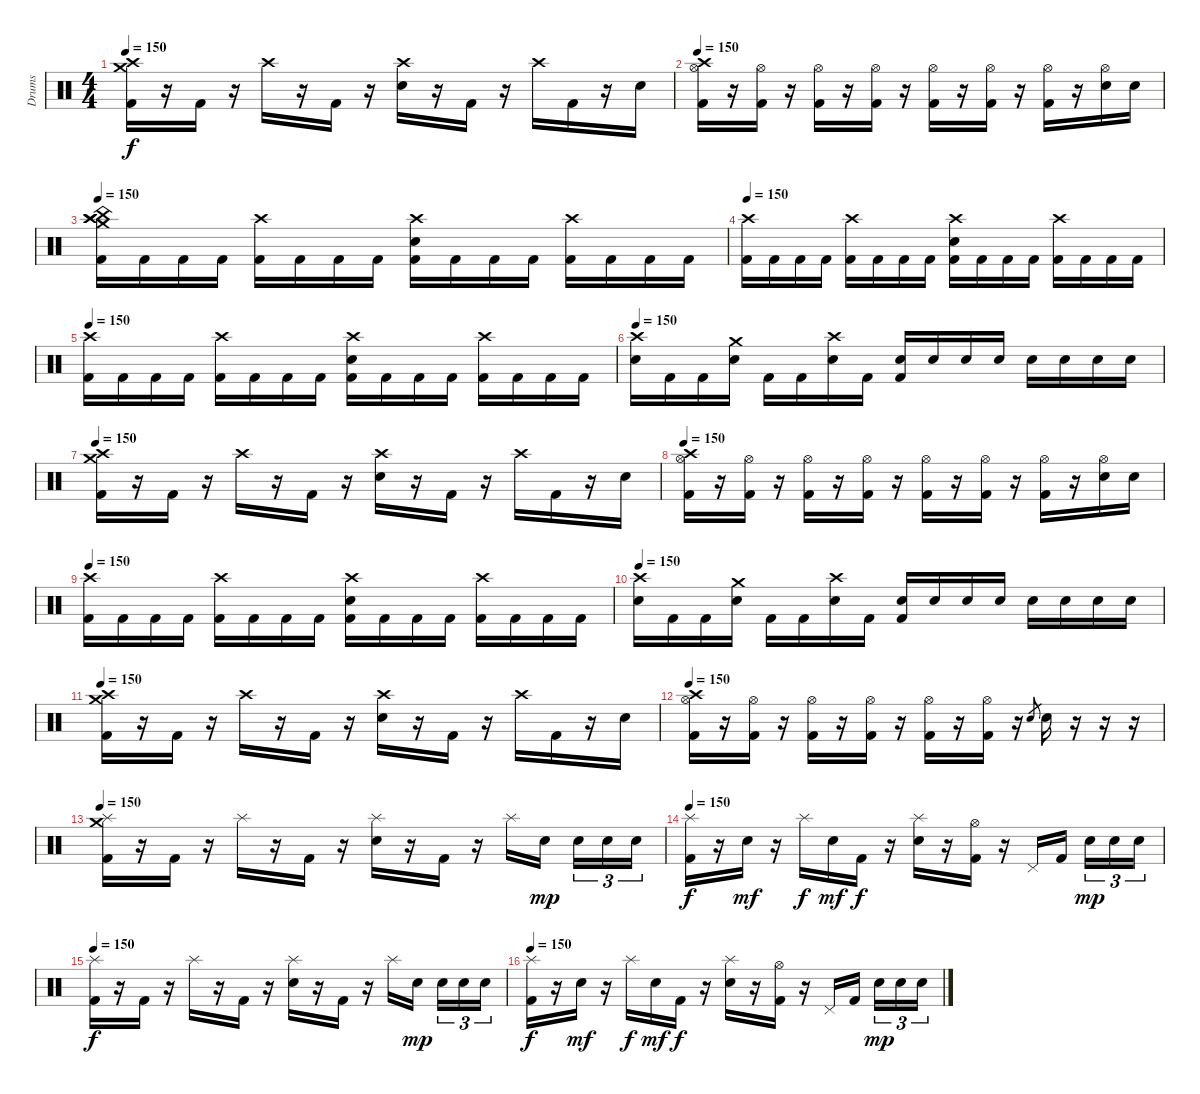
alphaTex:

\track ("Drums" "Drums") {instrument percussion}
\staff {score}
\articulation defaults
\ts (4 4)
\tempo 150
\clef neutral
\ks c
("Crash high (hit)" "Crash medium (hit)" "Kick (hit) 2").16{dy f} r.16 "Kick (hit) 2".16 r.16 "Crash high (hit)".16 r.16 "Kick (hit) 2".16 r.16 ("Crash high (hit)" "Electric Snare (hit)").16 r.16 "Kick (hit) 2".16 r.16 "Crash high (hit)".16 "Kick (hit) 2".16 r.16 "Electric Snare (hit)".16 |
\tempo 150
("Crash high (hit)" "Hi-Hat (open)" "Kick (hit) 2").16 r.16 ("Hi-Hat (open)" "Kick (hit) 2").16 r.16 ("Hi-Hat (open)" "Kick (hit) 2").16 r.16 ("Hi-Hat (open)" "Kick (hit) 2").16 r.16 ("Hi-Hat (open)" "Kick (hit) 2").16 r.16 ("Hi-Hat (open)" "Kick (hit) 2").16 r.16 ("Hi-Hat (open)" "Kick (hit) 2").16 r.16 ("Hi-Hat (open)" "Electric Snare (hit)").16 "Electric Snare (hit)".16 |
\tempo 150
("Crash high (hit)" "Crash medium (hit)" "Crash high (hit)" "China (hit)" "Kick (hit) 2").16 "Kick (hit) 2".16 "Kick (hit) 2".16 "Kick (hit) 2".16 ("Crash high (hit)" "Kick (hit) 2").16 "Kick (hit) 2".16 "Kick (hit) 2".16 "Kick (hit) 2".16 ("Crash high (hit)" "Electric Snare (hit)" "Kick (hit) 2").16 "Kick (hit) 2".16 "Kick (hit) 2".16 "Kick (hit) 2".16 ("Crash high (hit)" "Kick (hit) 2").16 "Kick (hit) 2".16 "Kick (hit) 2".16 "Kick (hit) 2".16 |
\tempo 150
("Crash high (hit)" "Kick (hit) 2").16 "Kick (hit) 2".16 "Kick (hit) 2".16 "Kick (hit) 2".16 ("Crash high (hit)" "Kick (hit) 2").16 "Kick (hit) 2".16 "Kick (hit) 2".16 "Kick (hit) 2".16 ("Crash high (hit)" "Electric Snare (hit)" "Kick (hit) 2").16 "Kick (hit) 2".16 "Kick (hit) 2".16 "Kick (hit) 2".16 ("Crash high (hit)" "Kick (hit) 2").16 "Kick (hit) 2".16 "Kick (hit) 2".16 "Kick (hit) 2".16 |
\tempo 150
("Crash high (hit)" "Kick (hit) 2").16 "Kick (hit) 2".16 "Kick (hit) 2".16 "Kick (hit) 2".16 ("Crash high (hit)" "Kick (hit) 2").16 "Kick (hit) 2".16 "Kick (hit) 2".16 "Kick (hit) 2".16 ("Crash high (hit)" "Electric Snare (hit)" "Kick (hit) 2").16 "Kick (hit) 2".16 "Kick (hit) 2".16 "Kick (hit) 2".16 ("Crash high (hit)" "Kick (hit) 2").16 "Kick (hit) 2".16 "Kick (hit) 2".16 "Kick (hit) 2".16 |
\tempo 150
("Crash high (hit)" "Electric Snare (hit)").16 "Kick (hit) 2".16 "Kick (hit) 2".16 ("Crash medium (hit)" "Electric Snare (hit)").16 "Kick (hit) 2".16 "Kick (hit) 2".16 ("Crash high (hit)" "Electric Snare (hit)").16 "Kick (hit) 2".16 ("Electric Snare (hit)" "Kick (hit) 2").16 "Electric Snare (hit)".16 "Electric Snare (hit)".16 "Electric Snare (hit)".16 "Electric Snare (hit)".16 "Electric Snare (hit)".16 "Electric Snare (hit)".16 "Electric Snare (hit)".16 |
\tempo 150
("Crash high (hit)" "Crash medium (hit)" "Kick (hit) 2").16 r.16 "Kick (hit) 2".16 r.16 "Crash high (hit)".16 r.16 "Kick (hit) 2".16 r.16 ("Crash high (hit)" "Electric Snare (hit)").16 r.16 "Kick (hit) 2".16 r.16 "Crash high (hit)".16 "Kick (hit) 2".16 r.16 "Electric Snare (hit)".16 |
\tempo 150
("Crash high (hit)" "Hi-Hat (open)" "Kick (hit) 2").16 r.16 ("Hi-Hat (open)" "Kick (hit) 2").16 r.16 ("Hi-Hat (open)" "Kick (hit) 2").16 r.16 ("Hi-Hat (open)" "Kick (hit) 2").16 r.16 ("Hi-Hat (open)" "Kick (hit) 2").16 r.16 ("Hi-Hat (open)" "Kick (hit) 2").16 r.16 ("Hi-Hat (open)" "Kick (hit) 2").16 r.16 ("Hi-Hat (open)" "Electric Snare (hit)").16 "Electric Snare (hit)".16 |
\tempo 150
("Crash high (hit)" "Kick (hit) 2").16 "Kick (hit) 2".16 "Kick (hit) 2".16 "Kick (hit) 2".16 ("Crash high (hit)" "Kick (hit) 2").16 "Kick (hit) 2".16 "Kick (hit) 2".16 "Kick (hit) 2".16 ("Crash high (hit)" "Electric Snare (hit)" "Kick (hit) 2").16 "Kick (hit) 2".16 "Kick (hit) 2".16 "Kick (hit) 2".16 ("Crash high (hit)" "Kick (hit) 2").16 "Kick (hit) 2".16 "Kick (hit) 2".16 "Kick (hit) 2".16 |
\tempo 150
("Crash high (hit)" "Electric Snare (hit)").16 "Kick (hit) 2".16 "Kick (hit) 2".16 ("Crash medium (hit)" "Electric Snare (hit)").16 "Kick (hit) 2".16 "Kick (hit) 2".16 ("Crash high (hit)" "Electric Snare (hit)").16 "Kick (hit) 2".16 ("Electric Snare (hit)" "Kick (hit) 2").16 "Electric Snare (hit)".16 "Electric Snare (hit)".16 "Electric Snare (hit)".16 "Electric Snare (hit)".16 "Electric Snare (hit)".16 "Electric Snare (hit)".16 "Electric Snare (hit)".16 |
\tempo 150
("Crash high (hit)" "Crash medium (hit)" "Kick (hit) 2").16 r.16 "Kick (hit) 2".16 r.16 "Crash high (hit)".16 r.16 "Kick (hit) 2".16 r.16 ("Crash high (hit)" "Electric Snare (hit)").16 r.16 "Kick (hit) 2".16 r.16 "Crash high (hit)".16 "Kick (hit) 2".16 r.16 "Electric Snare (hit)".16 |
\tempo 150
("Crash high (hit)" "Hi-Hat (open)" "Kick (hit) 2").16 r.16 ("Hi-Hat (open)" "Kick (hit) 2").16 r.16 ("Hi-Hat (open)" "Kick (hit) 2").16 r.16 ("Hi-Hat (open)" "Kick (hit) 2").16 r.16 ("Hi-Hat (open)" "Kick (hit) 2").16 r.16 ("Hi-Hat (open)" "Kick (hit) 2").16 r.16 "Electric Snare (hit)".8{gr} "Electric Snare (hit)".16 r.16 r.16 r.16 |
\tempo 150
("Splash (hit)" "Crash medium (hit)" "Kick (hit) 2").16 r.16 "Kick (hit) 2".16 r.16 "Splash (hit)".16 r.16 "Kick (hit) 2".16 r.16 ("Splash (hit)" "Electric Snare (hit)").16 r.16 "Kick (hit) 2".16 r.16 "Splash (hit)".16 "Electric Snare (hit)".16{dy mp} "Electric Snare (hit)".16{tu (3 2)} "Electric Snare (hit)".16{tu (3 2)} "Electric Snare (hit)".16{tu (3 2)} |
\tempo 150
("Splash (hit)" "Kick (hit) 2").16{dy f} r.16 "Electric Snare (hit)".16{dy mf} r.16 "Splash (hit)".16{dy f} "Electric Snare (hit)".16{dy mf} "Kick (hit) 2".16{dy f} r.16 ("Splash (hit)" "Electric Snare (hit)").16 r.16 ("Hi-Hat (open)" "Kick (hit) 2").16 r.16 "Pedal Hi-Hat (hit)".16 "Kick (hit) 2".16 "Electric Snare (hit)".16{tu (3 2) dy mp} "Electric Snare (hit)".16{tu (3 2)} "Electric Snare (hit)".16{tu (3 2)} |
\tempo 150
("Splash (hit)" "Kick (hit) 2").16{dy f} r.16 "Kick (hit) 2".16 r.16 "Splash (hit)".16 r.16 "Kick (hit) 2".16 r.16 ("Splash (hit)" "Electric Snare (hit)").16 r.16 "Kick (hit) 2".16 r.16 "Splash (hit)".16 "Electric Snare (hit)".16{dy mp} "Electric Snare (hit)".16{tu (3 2)} "Electric Snare (hit)".16{tu (3 2)} "Electric Snare (hit)".16{tu (3 2)} |
\tempo 150
("Splash (hit)" "Kick (hit) 2").16{dy f} r.16 "Electric Snare (hit)".16{dy mf} r.16 "Splash (hit)".16{dy f} "Electric Snare (hit)".16{dy mf} "Kick (hit) 2".16{dy f} r.16 ("Splash (hit)" "Electric Snare (hit)").16 r.16 ("Hi-Hat (open)" "Kick (hit) 2").16 r.16 "Pedal Hi-Hat (hit)".16 "Kick (hit) 2".16 "Electric Snare (hit)".16{tu (3 2) dy mp} "Electric Snare (hit)".16{tu (3 2)} "Electric Snare (hit)".16{tu (3 2)}
